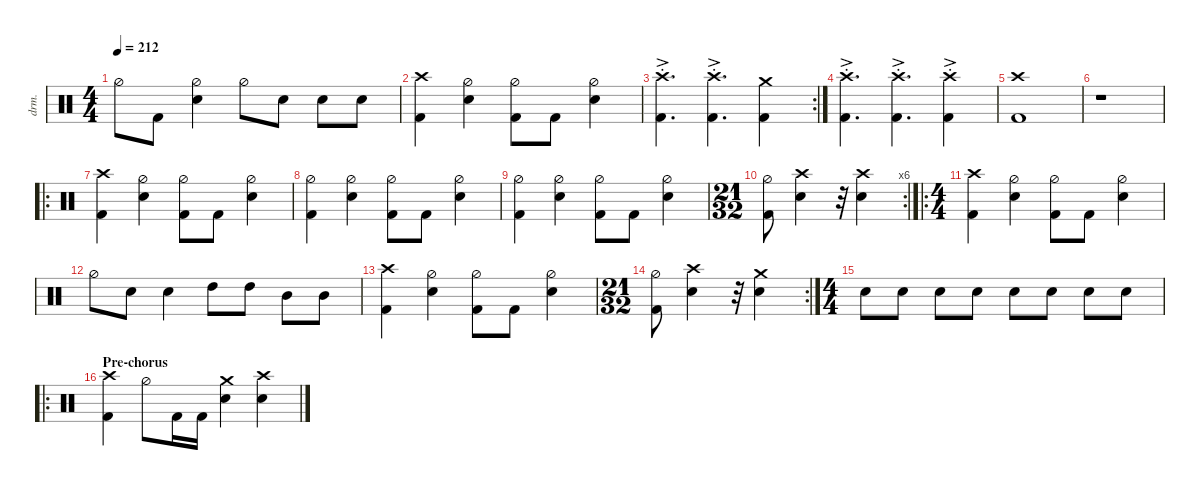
\defaultSystemsLayout 4
\hideDynamics
\bracketExtendMode nobrackets
\track ("Drums" "drm.") {instrument percussion}
\staff {score}
\articulation defaults
\ts (4 4)
\tempo 212
\clef neutral
\ks c "Hi-Hat (half)".8{dy f} "Kick (hit) 2".8
("Hi-Hat (half)" "Snare (hit) 2").4 "Hi-Hat (half)".8 "Snare (hit) 2".8 "Snare (hit) 2".8 "Snare (hit) 2".8 |
("Crash high (hit)" "Kick (hit) 2").4 ("Hi-Hat (half)" "Snare (hit) 2").4 ("Hi-Hat (half)" "Kick (hit) 2").8 "Kick (hit) 2".8 ("Hi-Hat (half)" "Snare (hit) 2").4 |
\rc 2
("Crash high (hit)"{ac st} "Kick (hit) 2").4{d} ("Crash high (hit)"{ac st} "Kick (hit) 2").4{d} ("Crash medium (hit)" "Kick (hit) 2").4 |
("Crash high (hit)"{ac st} "Kick (hit) 2").4{d} ("Crash high (hit)"{ac st} "Kick (hit) 2").4{d} ("Crash high (hit)"{ac st} "Kick (hit) 2").4 |
("Kick (hit) 2" "Crash high (hit)").1 |
r.1 |
\ro
("Crash high (hit)" "Kick (hit) 2").4 ("Hi-Hat (half)" "Snare (hit) 2").4 ("Hi-Hat (half)" "Kick (hit) 2").8 "Kick (hit) 2".8 ("Hi-Hat (half)" "Snare (hit) 2").4 |
("Kick (hit) 2" "Hi-Hat (half)").4 ("Hi-Hat (half)" "Snare (hit) 2").4 ("Hi-Hat (half)" "Kick (hit) 2").8 "Kick (hit) 2".8 ("Hi-Hat (half)" "Snare (hit) 2").4 |
("Kick (hit) 2" "Hi-Hat (half)").4 ("Hi-Hat (half)" "Snare (hit) 2").4 ("Hi-Hat (half)" "Kick (hit) 2").8 "Kick (hit) 2".8 ("Hi-Hat (half)" "Snare (hit) 2").4 |
\rc 6
\ts (21 32)
\beaming (8 2 2 2 2)
("Kick (hit) 2" "Hi-Hat (half)").8 ("Snare (hit) 2" "Crash high (hit)").4 r.32 ("Snare (hit) 2" "Crash high (hit)").4 |
\ro
\ts (4 4)
\beaming (8 2 2 2 2)
("Crash high (hit)" "Kick (hit) 2").4 ("Hi-Hat (half)" "Snare (hit) 2").4 ("Hi-Hat (half)" "Kick (hit) 2").8 "Kick (hit) 2".8 ("Hi-Hat (half)" "Snare (hit) 2").4 |
"Hi-Hat (half)".8 "Snare (hit) 2".8 "Snare (hit) 2".4 "High Tom (hit)".8{dy ff} "High Tom (hit)".8 "Mid Tom (hit)".8 "Mid Tom (hit)".8 |
("Crash high (hit)" "Kick (hit) 2").4{dy f} ("Hi-Hat (half)" "Snare (hit) 2").4 ("Hi-Hat (half)" "Kick (hit) 2").8 "Kick (hit) 2".8 ("Hi-Hat (half)" "Snare (hit) 2").4 |
\rc 2
\ts (21 32)
\beaming (8 2 2 2 2)
("Kick (hit) 2" "Hi-Hat (half)").8 ("Snare (hit) 2" "Crash high (hit)").4 r.32 ("Snare (hit) 2" "Crash medium (hit)").4 |
\ts (4 4)
\beaming (8 2 2 2 2)
"Snare (hit) 2".8 "Snare (hit) 2".8 "Snare (hit) 2".8 "Snare (hit) 2".8 "Snare (hit) 2".8 "Snare (hit) 2".8 "Snare (hit) 2".8 "Snare (hit) 2".8 |
\ro
\section ("" "Pre-chorus")
("Crash high (hit)" "Kick (hit) 2").4 "Hi-Hat (half)".8 "Kick (hit) 2".16 "Kick (hit) 2".16 ("Snare (hit) 2" "Crash medium (hit)").4 ("Snare (hit) 2" "Crash high (hit)").4
